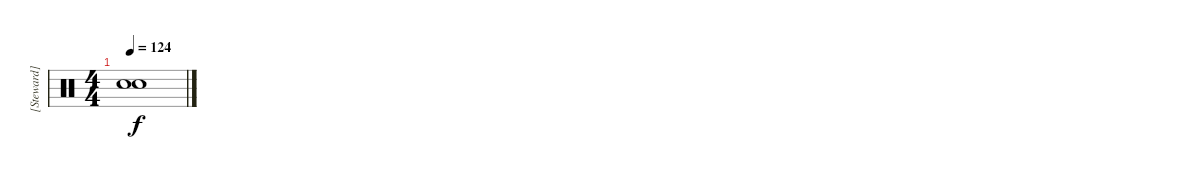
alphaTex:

\track ("[Steward]" "[Steward]") {solo instrument percussion}
\staff {score}
\articulation defaults
\ts (4 4)
\tempo 124
\clef neutral
\ks c
("Snare (hit)"{t} "Snare (hit)"{t}).1{dy f}
